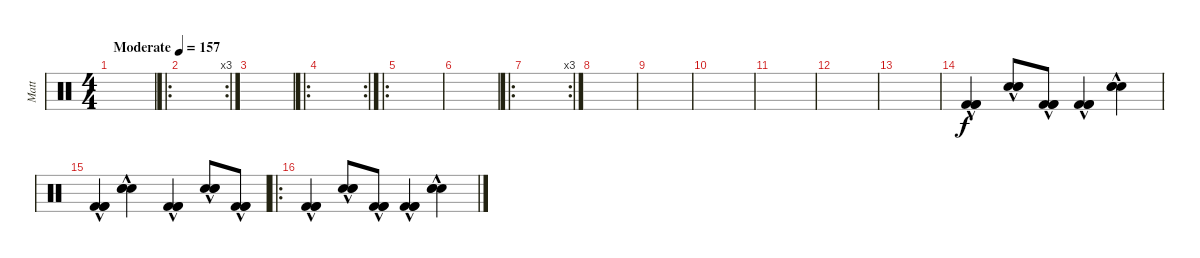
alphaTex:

\track ("Matt" "Matt") {instrument percussion}
\staff {score}
\articulation defaults
\ts (4 4)
\tempo (157 "Moderate")
\clef neutral
\ks c
|
\ro
\rc 3
|
|
\ro
\rc 2
|
\ro
|
|
\ro
\rc 3
|
|
|
|
|
|
|
("Kick (hit) 2"{hac} "Kick (hit) 2"{hac} "Kick (hit) 2"{hac}).4 ("Snare (hit) 2"{hac} "Snare (hit) 2"{hac} "Snare (hit) 2"{hac}).8 ("Kick (hit) 2"{hac} "Kick (hit) 2"{hac} "Kick (hit) 2"{hac}).8 ("Kick (hit) 2"{hac} "Kick (hit) 2"{hac} "Kick (hit) 2"{hac}).4 ("Snare (hit) 2"{hac} "Snare (hit) 2"{hac} "Snare (hit) 2"{hac}).4 |
("Kick (hit) 2"{hac} "Kick (hit) 2"{hac} "Kick (hit) 2"{hac}).4 ("Snare (hit) 2"{hac} "Snare (hit) 2"{hac} "Snare (hit) 2"{hac}).4 ("Kick (hit) 2"{hac} "Kick (hit) 2"{hac} "Kick (hit) 2"{hac}).4 ("Snare (hit) 2"{hac} "Snare (hit) 2"{hac} "Snare (hit) 2"{hac}).8 ("Kick (hit) 2"{hac} "Kick (hit) 2"{hac} "Kick (hit) 2"{hac}).8 |
\ro
("Kick (hit) 2"{hac} "Kick (hit) 2"{hac} "Kick (hit) 2"{hac}).4 ("Snare (hit) 2"{hac} "Snare (hit) 2"{hac} "Snare (hit) 2"{hac}).8 ("Kick (hit) 2"{hac} "Kick (hit) 2"{hac} "Kick (hit) 2"{hac}).8 ("Kick (hit) 2"{hac} "Kick (hit) 2"{hac} "Kick (hit) 2"{hac}).4 ("Snare (hit) 2"{hac} "Snare (hit) 2"{hac} "Snare (hit) 2"{hac}).4
